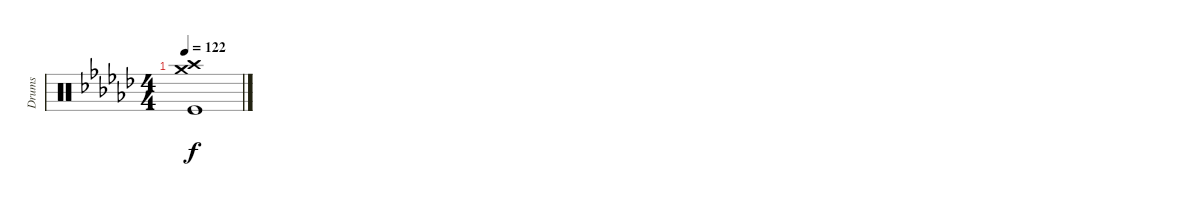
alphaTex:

\track ("Drums" "Drums") {instrument percussion}
\staff {score}
\articulation defaults
\ts (4 4)
\tempo 122
\clef neutral
\ks ebminor
("Crash medium (hit)" "Crash high (hit)" "Kick (hit)").1{dy f}
